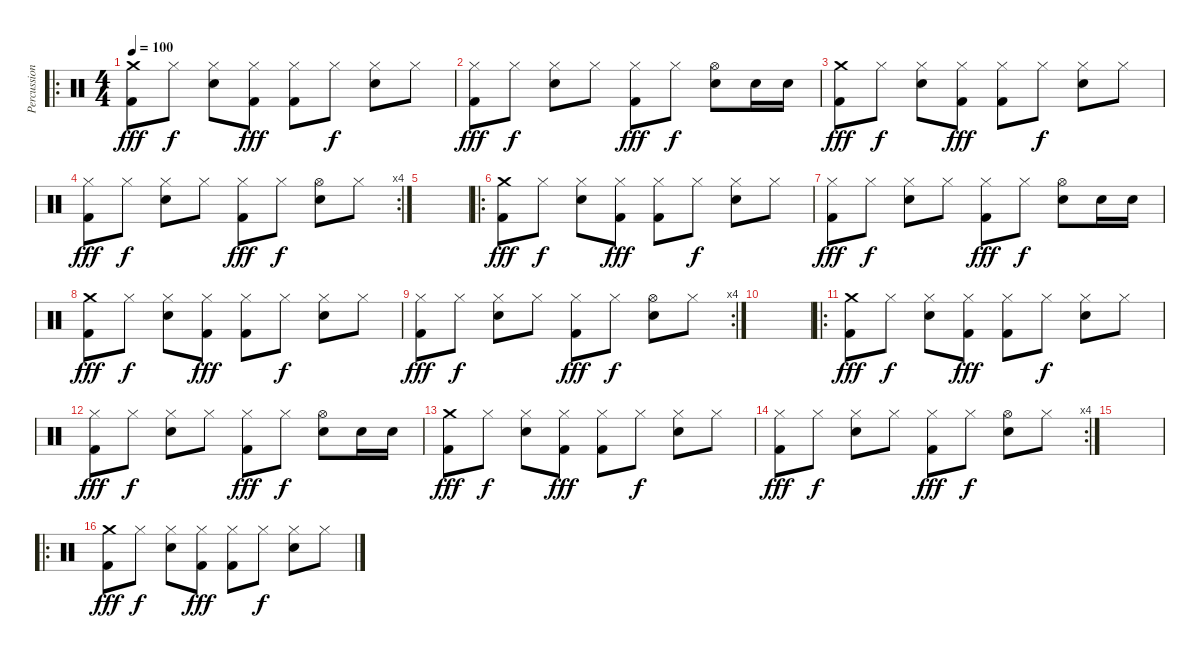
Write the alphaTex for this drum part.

\track ("Percussion" "Percussion") {instrument percussion}
\staff {score}
\articulation defaults
\ro
\ts (4 4)
\tempo 100
\clef neutral
\ks c
("Crash medium (hit)" "Kick (hit) 2").8{dy fff} "Hi-Hat (closed)".8{dy f} ("Hi-Hat (closed)" "Electric Snare (hit)").8 ("Hi-Hat (closed)" "Kick (hit) 2").8{dy fff} ("Hi-Hat (closed)" "Kick (hit) 2").8 "Hi-Hat (closed)".8{dy f} ("Hi-Hat (closed)" "Electric Snare (hit)").8 "Hi-Hat (closed)".8 |
("Hi-Hat (closed)" "Kick (hit) 2").8{dy fff} "Hi-Hat (closed)".8{dy f} ("Hi-Hat (closed)" "Electric Snare (hit)").8 "Hi-Hat (closed)".8 ("Hi-Hat (closed)" "Kick (hit) 2").8{dy fff} "Hi-Hat (closed)".8{dy f} ("Hi-Hat (open)" "Electric Snare (hit)").8 "Electric Snare (hit)".16 "Electric Snare (hit)".16 |
("Crash medium (hit)" "Kick (hit) 2").8{dy fff} "Hi-Hat (closed)".8{dy f} ("Hi-Hat (closed)" "Electric Snare (hit)").8 ("Hi-Hat (closed)" "Kick (hit) 2").8{dy fff} ("Hi-Hat (closed)" "Kick (hit) 2").8 "Hi-Hat (closed)".8{dy f} ("Hi-Hat (closed)" "Electric Snare (hit)").8 "Hi-Hat (closed)".8 |
\rc 4
("Hi-Hat (closed)" "Kick (hit) 2").8{dy fff} "Hi-Hat (closed)".8{dy f} ("Hi-Hat (closed)" "Electric Snare (hit)").8 "Hi-Hat (closed)".8 ("Hi-Hat (closed)" "Kick (hit) 2").8{dy fff} "Hi-Hat (closed)".8{dy f} ("Hi-Hat (open)" "Electric Snare (hit)").8 "Hi-Hat (closed)".8 |
|
\ro
("Crash medium (hit)" "Kick (hit) 2").8{dy fff} "Hi-Hat (closed)".8{dy f} ("Hi-Hat (closed)" "Electric Snare (hit)").8 ("Hi-Hat (closed)" "Kick (hit) 2").8{dy fff} ("Hi-Hat (closed)" "Kick (hit) 2").8 "Hi-Hat (closed)".8{dy f} ("Hi-Hat (closed)" "Electric Snare (hit)").8 "Hi-Hat (closed)".8 |
("Hi-Hat (closed)" "Kick (hit) 2").8{dy fff} "Hi-Hat (closed)".8{dy f} ("Hi-Hat (closed)" "Electric Snare (hit)").8 "Hi-Hat (closed)".8 ("Hi-Hat (closed)" "Kick (hit) 2").8{dy fff} "Hi-Hat (closed)".8{dy f} ("Hi-Hat (open)" "Electric Snare (hit)").8 "Electric Snare (hit)".16 "Electric Snare (hit)".16 |
("Crash medium (hit)" "Kick (hit) 2").8{dy fff} "Hi-Hat (closed)".8{dy f} ("Hi-Hat (closed)" "Electric Snare (hit)").8 ("Hi-Hat (closed)" "Kick (hit) 2").8{dy fff} ("Hi-Hat (closed)" "Kick (hit) 2").8 "Hi-Hat (closed)".8{dy f} ("Hi-Hat (closed)" "Electric Snare (hit)").8 "Hi-Hat (closed)".8 |
\rc 4
("Hi-Hat (closed)" "Kick (hit) 2").8{dy fff} "Hi-Hat (closed)".8{dy f} ("Hi-Hat (closed)" "Electric Snare (hit)").8 "Hi-Hat (closed)".8 ("Hi-Hat (closed)" "Kick (hit) 2").8{dy fff} "Hi-Hat (closed)".8{dy f} ("Hi-Hat (open)" "Electric Snare (hit)").8 "Hi-Hat (closed)".8 |
|
\ro
("Crash medium (hit)" "Kick (hit) 2").8{dy fff} "Hi-Hat (closed)".8{dy f} ("Hi-Hat (closed)" "Electric Snare (hit)").8 ("Hi-Hat (closed)" "Kick (hit) 2").8{dy fff} ("Hi-Hat (closed)" "Kick (hit) 2").8 "Hi-Hat (closed)".8{dy f} ("Hi-Hat (closed)" "Electric Snare (hit)").8 "Hi-Hat (closed)".8 |
("Hi-Hat (closed)" "Kick (hit) 2").8{dy fff} "Hi-Hat (closed)".8{dy f} ("Hi-Hat (closed)" "Electric Snare (hit)").8 "Hi-Hat (closed)".8 ("Hi-Hat (closed)" "Kick (hit) 2").8{dy fff} "Hi-Hat (closed)".8{dy f} ("Hi-Hat (open)" "Electric Snare (hit)").8 "Electric Snare (hit)".16 "Electric Snare (hit)".16 |
("Crash medium (hit)" "Kick (hit) 2").8{dy fff} "Hi-Hat (closed)".8{dy f} ("Hi-Hat (closed)" "Electric Snare (hit)").8 ("Hi-Hat (closed)" "Kick (hit) 2").8{dy fff} ("Hi-Hat (closed)" "Kick (hit) 2").8 "Hi-Hat (closed)".8{dy f} ("Hi-Hat (closed)" "Electric Snare (hit)").8 "Hi-Hat (closed)".8 |
\rc 4
("Hi-Hat (closed)" "Kick (hit) 2").8{dy fff} "Hi-Hat (closed)".8{dy f} ("Hi-Hat (closed)" "Electric Snare (hit)").8 "Hi-Hat (closed)".8 ("Hi-Hat (closed)" "Kick (hit) 2").8{dy fff} "Hi-Hat (closed)".8{dy f} ("Hi-Hat (open)" "Electric Snare (hit)").8 "Hi-Hat (closed)".8 |
|
\ro
("Crash medium (hit)" "Kick (hit) 2").8{dy fff} "Hi-Hat (closed)".8{dy f} ("Hi-Hat (closed)" "Electric Snare (hit)").8 ("Hi-Hat (closed)" "Kick (hit) 2").8{dy fff} ("Hi-Hat (closed)" "Kick (hit) 2").8 "Hi-Hat (closed)".8{dy f} ("Hi-Hat (closed)" "Electric Snare (hit)").8 "Hi-Hat (closed)".8
